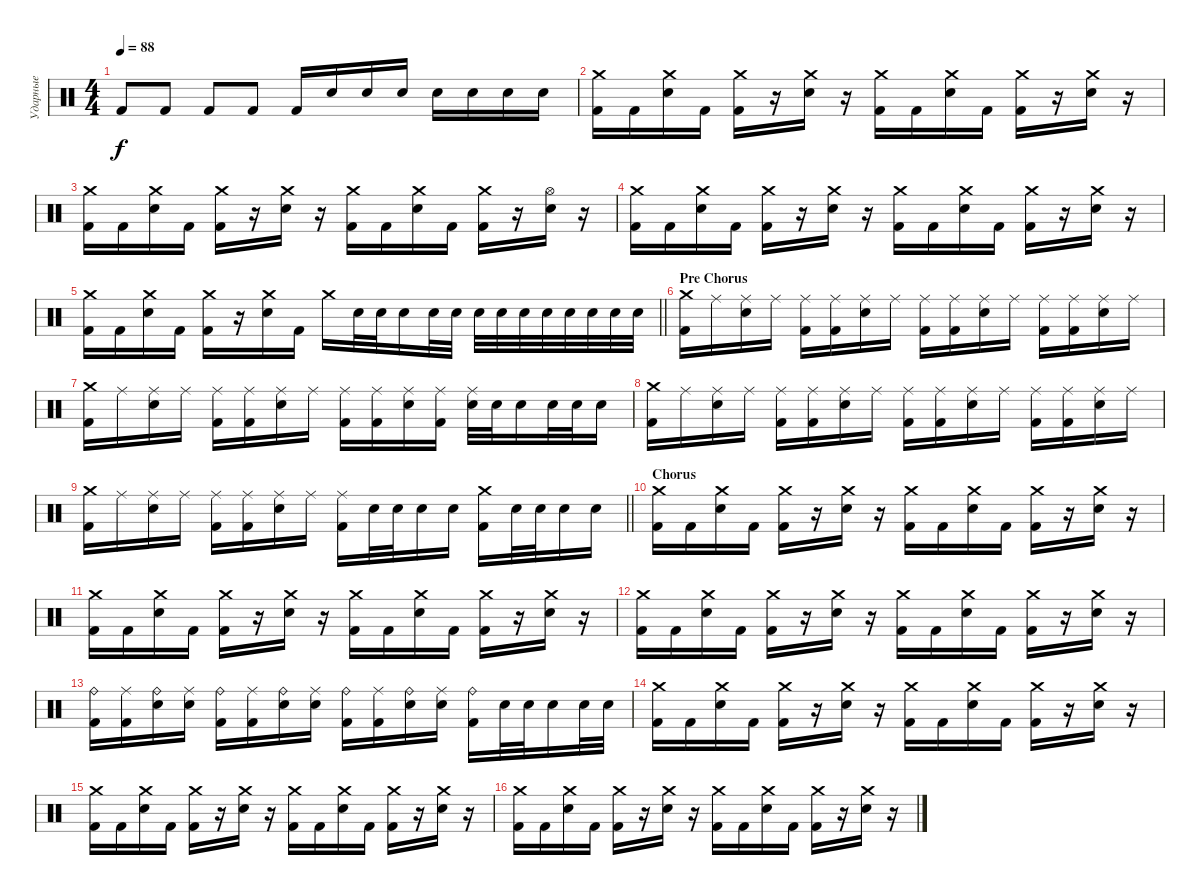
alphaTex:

\track ("Ударные" "Ударные") {instrument percussion}
\staff {score}
\articulation defaults
\ts (4 4)
\tempo 88
\clef neutral
\ks c "Kick (hit) 2".8{dy f} "Kick (hit) 2".8 "Kick (hit) 2".8 "Kick (hit) 2".8 "Kick (hit) 2".16 "Electric Snare (hit)".16 "Electric Snare (hit)".16 "Electric Snare (hit)".16 "Electric Snare (hit)".16 "Electric Snare (hit)".16 "Electric Snare (hit)".16 "Electric Snare (hit)".16
|
("Crash medium (hit)" "Kick (hit) 2").16 "Kick (hit) 2".16 ("Crash medium (hit)" "Electric Snare (hit)").16 "Kick (hit) 2".16 ("Crash medium (hit)" "Kick (hit) 2").16 r.16 ("Crash medium (hit)" "Electric Snare (hit)").16 r.16 ("Crash medium (hit)" "Kick (hit) 2").16 "Kick (hit) 2".16 ("Crash medium (hit)" "Electric Snare (hit)").16 "Kick (hit) 2".16 ("Crash medium (hit)" "Kick (hit) 2").16 r.16 ("Crash medium (hit)" "Electric Snare (hit)").16 r.16 |
("Crash medium (hit)" "Kick (hit) 2").16 "Kick (hit) 2".16 ("Crash medium (hit)" "Electric Snare (hit)").16 "Kick (hit) 2".16 ("Crash medium (hit)" "Kick (hit) 2").16 r.16 ("Crash medium (hit)" "Electric Snare (hit)").16 r.16 ("Crash medium (hit)" "Kick (hit) 2").16 "Kick (hit) 2".16 ("Crash medium (hit)" "Electric Snare (hit)").16 "Kick (hit) 2".16 ("Crash medium (hit)" "Kick (hit) 2").16 r.16 ("Hi-Hat (open)" "Electric Snare (hit)").16 r.16 |
("Crash medium (hit)" "Kick (hit) 2").16 "Kick (hit) 2".16 ("Crash medium (hit)" "Electric Snare (hit)").16 "Kick (hit) 2".16 ("Crash medium (hit)" "Kick (hit) 2").16 r.16 ("Crash medium (hit)" "Electric Snare (hit)").16 r.16 ("Crash medium (hit)" "Kick (hit) 2").16 "Kick (hit) 2".16 ("Crash medium (hit)" "Electric Snare (hit)").16 "Kick (hit) 2".16 ("Crash medium (hit)" "Kick (hit) 2").16 r.16 ("Crash medium (hit)" "Electric Snare (hit)").16 r.16 |
\barLineRight lightlight
("Crash medium (hit)" "Kick (hit) 2").16 "Kick (hit) 2".16 ("Crash medium (hit)" "Electric Snare (hit)").16 "Kick (hit) 2".16 ("Crash medium (hit)" "Kick (hit) 2").16 r.16 ("Crash medium (hit)" "Electric Snare (hit)").16 "Kick (hit) 2".16 "Crash medium (hit)".16 "Electric Snare (hit)".32 "Electric Snare (hit)".32 "Electric Snare (hit)".16 "Electric Snare (hit)".32 "Electric Snare (hit)".32 "Electric Snare (hit)".32 "Electric Snare (hit)".32 "Electric Snare (hit)".32 "Electric Snare (hit)".32 "Electric Snare (hit)".32 "Electric Snare (hit)".32 "Electric Snare (hit)".32 "Electric Snare (hit)".32 |
\section ("" "Pre Chorus")
("Crash medium (hit)" "Kick (hit) 2").16 "Ride (middle)".16 ("Ride (middle)" "Electric Snare (hit)").16 "Ride (middle)".16 ("Ride (middle)" "Kick (hit) 2").16 ("Ride (middle)" "Kick (hit) 2").16 ("Ride (middle)" "Electric Snare (hit)").16 "Ride (middle)".16 ("Ride (middle)" "Kick (hit) 2").16 ("Ride (middle)" "Kick (hit) 2").16 ("Ride (middle)" "Electric Snare (hit)").16 "Ride (middle)".16 ("Ride (middle)" "Kick (hit) 2").16 ("Ride (middle)" "Kick (hit) 2").16 ("Ride (middle)" "Electric Snare (hit)").16 "Ride (middle)".16 |
("Crash medium (hit)" "Kick (hit) 2").16 "Ride (middle)".16 ("Ride (middle)" "Electric Snare (hit)").16 "Ride (middle)".16 ("Ride (middle)" "Kick (hit) 2").16 ("Ride (middle)" "Kick (hit) 2").16 ("Ride (middle)" "Electric Snare (hit)").16 "Ride (middle)".16 ("Ride (middle)" "Kick (hit) 2").16 ("Ride (middle)" "Kick (hit) 2").16 ("Ride (middle)" "Electric Snare (hit)").16 ("Ride (middle)" "Kick (hit) 2").16 ("Ride (middle)" "Electric Snare (hit)").32 "Electric Snare (hit)".32 "Electric Snare (hit)".16 "Electric Snare (hit)".32 "Electric Snare (hit)".32 "Electric Snare (hit)".16 |
("Crash medium (hit)" "Kick (hit) 2").16 "Ride (middle)".16 ("Ride (middle)" "Electric Snare (hit)").16 "Ride (middle)".16 ("Ride (middle)" "Kick (hit) 2").16 ("Ride (middle)" "Kick (hit) 2").16 ("Ride (middle)" "Electric Snare (hit)").16 "Ride (middle)".16 ("Ride (middle)" "Kick (hit) 2").16 ("Ride (middle)" "Kick (hit) 2").16 ("Ride (middle)" "Electric Snare (hit)").16 "Ride (middle)".16 ("Ride (middle)" "Kick (hit) 2").16 ("Ride (middle)" "Kick (hit) 2").16 ("Ride (middle)" "Electric Snare (hit)").16 "Ride (middle)".16 |
\barLineRight lightlight
("Crash medium (hit)" "Kick (hit) 2").16 "Ride (middle)".16 ("Ride (middle)" "Electric Snare (hit)").16 "Ride (middle)".16 ("Ride (middle)" "Kick (hit) 2").16 ("Ride (middle)" "Kick (hit) 2").16 ("Ride (middle)" "Electric Snare (hit)").16 "Ride (middle)".16 ("Ride (middle)" "Kick (hit) 2").16 "Electric Snare (hit)".32 "Electric Snare (hit)".32 "Electric Snare (hit)".16 "Electric Snare (hit)".16 ("Crash medium (hit)" "Kick (hit) 2").16 "Electric Snare (hit)".32 "Electric Snare (hit)".32 "Electric Snare (hit)".16 "Electric Snare (hit)".16 |
\section ("" "Chorus")
("Crash medium (hit)" "Kick (hit) 2").16 "Kick (hit) 2".16 ("Crash medium (hit)" "Electric Snare (hit)").16 "Kick (hit) 2".16 ("Crash medium (hit)" "Kick (hit) 2").16 r.16 ("Crash medium (hit)" "Electric Snare (hit)").16 r.16 ("Crash medium (hit)" "Kick (hit) 2").16 "Kick (hit) 2".16 ("Crash medium (hit)" "Electric Snare (hit)").16 "Kick (hit) 2".16 ("Crash medium (hit)" "Kick (hit) 2").16 r.16 ("Crash medium (hit)" "Electric Snare (hit)").16 r.16 |
("Crash medium (hit)" "Kick (hit) 2").16 "Kick (hit) 2".16 ("Crash medium (hit)" "Electric Snare (hit)").16 "Kick (hit) 2".16 ("Crash medium (hit)" "Kick (hit) 2").16 r.16 ("Crash medium (hit)" "Electric Snare (hit)").16 r.16 ("Crash medium (hit)" "Kick (hit) 2").16 "Kick (hit) 2".16 ("Crash medium (hit)" "Electric Snare (hit)").16 "Kick (hit) 2".16 ("Crash medium (hit)" "Kick (hit) 2").16 r.16 ("Crash medium (hit)" "Electric Snare (hit)").16 r.16 |
("Crash medium (hit)" "Kick (hit) 2").16 "Kick (hit) 2".16 ("Crash medium (hit)" "Electric Snare (hit)").16 "Kick (hit) 2".16 ("Crash medium (hit)" "Kick (hit) 2").16 r.16 ("Crash medium (hit)" "Electric Snare (hit)").16 r.16 ("Crash medium (hit)" "Kick (hit) 2").16 "Kick (hit) 2".16 ("Crash medium (hit)" "Electric Snare (hit)").16 "Kick (hit) 2".16 ("Crash medium (hit)" "Kick (hit) 2").16 r.16 ("Crash medium (hit)" "Electric Snare (hit)").16 r.16 |
("Ride (bell)" "Kick (hit) 2").16 ("Ride (middle)" "Kick (hit) 2").16 ("Ride (bell)" "Electric Snare (hit)").16 ("Ride (middle)" "Electric Snare (hit)").16 ("Ride (bell)" "Kick (hit) 2").16 ("Ride (middle)" "Kick (hit) 2").16 ("Ride (bell)" "Electric Snare (hit)").16 ("Ride (middle)" "Electric Snare (hit)").16 ("Ride (bell)" "Kick (hit) 2").16 ("Ride (middle)" "Kick (hit) 2").16 ("Ride (bell)" "Electric Snare (hit)").16 ("Ride (middle)" "Electric Snare (hit)").16 ("Ride (bell)" "Kick (hit) 2").16 "Electric Snare (hit)".32 "Electric Snare (hit)".32 "Electric Snare (hit)".16 "Electric Snare (hit)".32 "Electric Snare (hit)".32 |
("Crash medium (hit)" "Kick (hit) 2").16 "Kick (hit) 2".16 ("Crash medium (hit)" "Electric Snare (hit)").16 "Kick (hit) 2".16 ("Crash medium (hit)" "Kick (hit) 2").16 r.16 ("Crash medium (hit)" "Electric Snare (hit)").16 r.16 ("Crash medium (hit)" "Kick (hit) 2").16 "Kick (hit) 2".16 ("Crash medium (hit)" "Electric Snare (hit)").16 "Kick (hit) 2".16 ("Crash medium (hit)" "Kick (hit) 2").16 r.16 ("Crash medium (hit)" "Electric Snare (hit)").16 r.16 |
("Crash medium (hit)" "Kick (hit) 2").16 "Kick (hit) 2".16 ("Crash medium (hit)" "Electric Snare (hit)").16 "Kick (hit) 2".16 ("Crash medium (hit)" "Kick (hit) 2").16 r.16 ("Crash medium (hit)" "Electric Snare (hit)").16 r.16 ("Crash medium (hit)" "Kick (hit) 2").16 "Kick (hit) 2".16 ("Crash medium (hit)" "Electric Snare (hit)").16 "Kick (hit) 2".16 ("Crash medium (hit)" "Kick (hit) 2").16 r.16 ("Crash medium (hit)" "Electric Snare (hit)").16 r.16 |
("Crash medium (hit)" "Kick (hit) 2").16 "Kick (hit) 2".16 ("Crash medium (hit)" "Electric Snare (hit)").16 "Kick (hit) 2".16 ("Crash medium (hit)" "Kick (hit) 2").16 r.16 ("Crash medium (hit)" "Electric Snare (hit)").16 r.16 ("Crash medium (hit)" "Kick (hit) 2").16 "Kick (hit) 2".16 ("Crash medium (hit)" "Electric Snare (hit)").16 "Kick (hit) 2".16 ("Crash medium (hit)" "Kick (hit) 2").16 r.16 ("Crash medium (hit)" "Electric Snare (hit)").16 r.16
